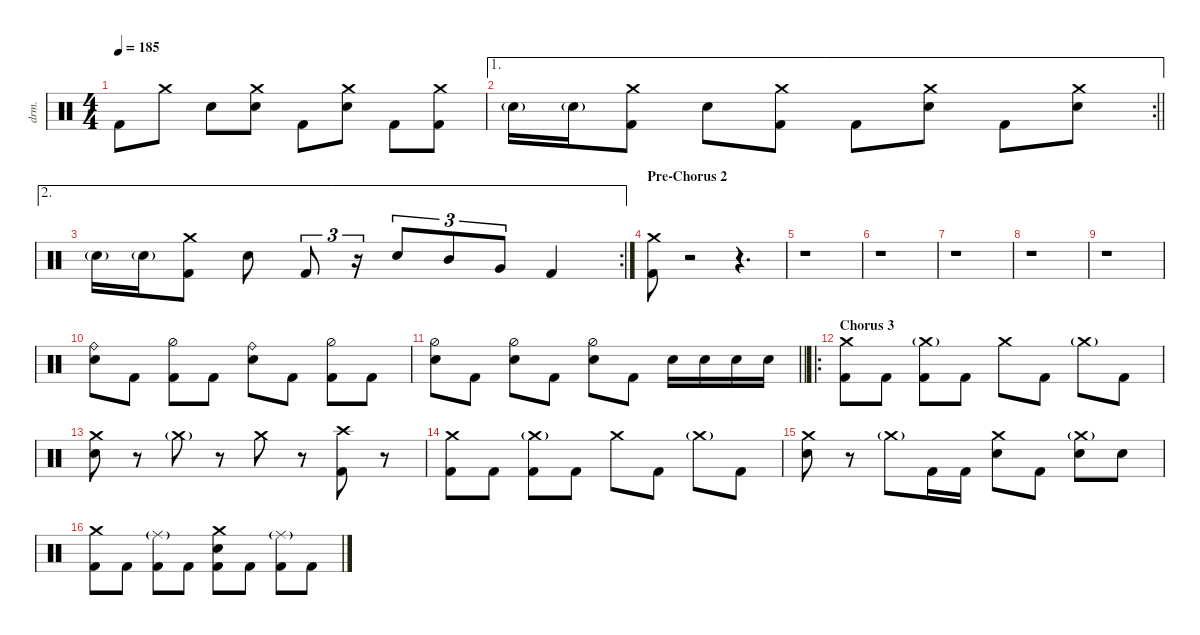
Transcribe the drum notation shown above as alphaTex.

\defaultSystemsLayout 4
\hideDynamics
\bracketExtendMode nobrackets
\track ("Drums - Šimon" "drm.") {instrument percussion}
\staff {score}
\articulation defaults
\ts (4 4)
\tempo 185
\clef neutral
\ks c "Kick (hit) 2".8{dy ff beam Down} "Crash medium (hit)".8{beam Down} "Snare (hit) 2".8{beam Down}
("Snare (hit) 2" "Crash medium (hit)").8{beam Down} "Kick (hit) 2".8{beam Down} ("Crash medium (hit)" "Snare (hit) 2").8{beam Down} "Kick (hit) 2".8{beam Down} ("Crash medium (hit)" "Kick (hit) 2").8{beam Down} |
\ae 1
\rc 2
\barLineRight lightlight "Snare (hit) 2"{g}.16{beam Down} "Snare (hit) 2"{g}.16{beam Down}
("Kick (hit) 2" "Crash medium (hit)").8{beam Down} "Snare (hit) 2".8{beam Down} ("Crash medium (hit)" "Kick (hit) 2").8{beam Down} "Kick (hit) 2".8{beam Down} ("Crash medium (hit)" "Snare (hit) 2").8{beam Down} "Kick (hit) 2".8{beam Down} ("Snare (hit) 2" "Crash medium (hit)").8{beam Down} |
\ae 2
\rc 2 "Snare (hit) 2"{g}.16{beam Down} "Snare (hit) 2"{g}.16{beam Down}
("Kick (hit) 2" "Crash medium (hit)").8{beam Down} "Snare (hit) 2".8{beam Down} "Kick (hit) 2".8{tu (3 2) beam Up} r.16{tu (3 2) beam Down} "Snare (hit) 2".8{tu (3 2) beam Up} "Mid Tom (hit)".8{tu (3 2) beam Up} "Very Low Tom (hit)".8{tu (3 2) beam Up} "Kick (hit) 2".4{beam Up} |
\section ("" "Pre-Chorus 2")
("Kick (hit) 2" "Crash medium (hit)").8{beam Down} r.2{beam Down} r.4{d beam Down} |
r.1{beam Down} |
r.1{beam Down} |
r.1{beam Down} |
r.1{beam Down} |
r.1{beam Down} |
("Snare (hit) 2" "Ride (bell)").8{beam Down} "Kick (hit) 2".8{beam Down} ("Kick (hit) 2" "Hi-Hat (half)").8{beam Down} "Kick (hit) 2".8{beam Down} ("Snare (hit) 2" "Ride (bell)").8{beam Down} "Kick (hit) 2".8{beam Down} ("Kick (hit) 2" "Hi-Hat (half)").8{beam Down} "Kick (hit) 2".8{beam Down} |
\barLineRight lightlight
("Snare (hit) 2" "Hi-Hat (half)").8{beam Down} "Kick (hit) 2".8{beam Down} ("Snare (hit) 2" "Hi-Hat (half)").8{beam Down} "Kick (hit) 2".8{beam Down} ("Snare (hit) 2" "Hi-Hat (half)").8{beam Down} "Kick (hit) 2".8{beam Down} "Snare (hit) 2".16{beam Down} "Snare (hit) 2".16{beam Down} "Snare (hit) 2".16{beam Down} "Snare (hit) 2".16{beam Down} |
\ro
\section ("" "Chorus 3")
("Kick (hit) 2" "Crash medium (hit)").8{beam Down} "Kick (hit) 2".8{beam Down} ("Kick (hit) 2" "Crash medium (hit)"{g}).8{beam Down} "Kick (hit) 2".8{beam Down} "Crash medium (hit)".8{beam Down} "Kick (hit) 2".8{beam Down} "Crash medium (hit)"{g}.8{beam Down} "Kick (hit) 2".8{beam Down} |
("Snare (hit) 2" "Crash medium (hit)").8{beam Down} r.8{beam Down} "Crash medium (hit)"{g}.8{beam Down} r.8{beam Down} "Crash medium (hit)".8{beam Down} r.8{beam Down} ("Kick (hit) 2" "Crash high (hit)").8{beam Down} r.8{beam Down} |
("Kick (hit) 2" "Crash medium (hit)").8{beam Down} "Kick (hit) 2".8{beam Down} ("Kick (hit) 2" "Crash medium (hit)"{g}).8{beam Down} "Kick (hit) 2".8{beam Down} "Crash medium (hit)".8{beam Down} "Kick (hit) 2".8{beam Down} "Crash medium (hit)"{g}.8{beam Down} "Kick (hit) 2".8{beam Down} |
("Snare (hit) 2" "Crash medium (hit)").8{beam Down} r.8{beam Down} "Crash medium (hit)"{g}.8{beam Down} "Kick (hit) 2".16{beam Down} "Kick (hit) 2".16{beam Down} ("Crash medium (hit)" "Snare (hit) 2").8{beam Down} "Kick (hit) 2".8{beam Down} ("Snare (hit) 2" "Crash medium (hit)"{g}).8{beam Down} "Snare (hit) 2".8{beam Down} |
("Kick (hit) 2" "Crash medium (hit)").8{beam Down} "Kick (hit) 2".8{beam Down} ("Kick (hit) 2" "Ride (middle)"{g}).8{beam Down} "Kick (hit) 2".8{beam Down} ("Snare (hit) 2" "Crash medium (hit)" "Kick (hit) 2").8{beam Down} "Kick (hit) 2".8{beam Down} ("Kick (hit) 2" "Ride (middle)"{g}).8{beam Down} "Kick (hit) 2".8{beam Down}
